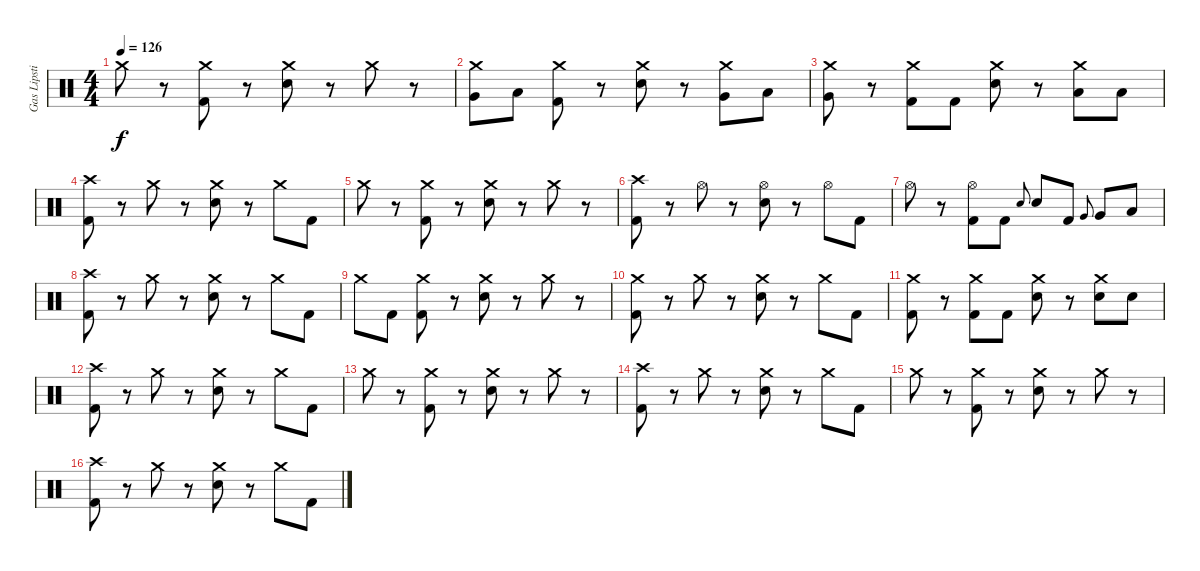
\track ("Gas Lipstick (Drums)" "Gas Lipsti") {instrument percussion}
\staff {score}
\articulation defaults
\ts (4 4)
\tempo 126
\clef neutral
\ks c "Crash medium (hit)".8{dy f}
r.8 ("Crash medium (hit)" "Kick (hit) 2").8 r.8 ("Crash medium (hit)" "Snare (hit) 2").8 r.8 "Crash medium (hit)".8 r.8 |
("Crash medium (hit)" "Very Low Tom (hit)").8 "Low Floor Tom (hit)".8 ("Crash medium (hit)" "Kick (hit) 2").8 r.8 ("Crash medium (hit)" "Snare (hit) 2").8 r.8 ("Crash medium (hit)" "Very Low Tom (hit)").8 "Low Floor Tom (hit)".8 |
("Crash medium (hit)" "Very Low Tom (hit)").8 r.8 ("Crash medium (hit)" "Kick (hit) 2").8 "Kick (hit) 2".8 ("Crash medium (hit)" "Snare (hit) 2").8 r.8 ("Crash medium (hit)" "Low Floor Tom (hit)").8 "Low Floor Tom (hit)".8 |
("Crash high (hit)" "Kick (hit) 2").8 r.8 "Crash medium (hit)".8 r.8 ("Crash medium (hit)" "Snare (hit) 2").8 r.8 "Crash medium (hit)".8 "Kick (hit) 2".8 |
"Crash medium (hit)".8 r.8 ("Crash medium (hit)" "Kick (hit) 2").8 r.8 ("Crash medium (hit)" "Snare (hit) 2").8 r.8 "Crash medium (hit)".8 r.8 |
("Crash high (hit)" "Kick (hit) 2").8 r.8 "Hi-Hat (open)".8 r.8 ("Hi-Hat (open)" "Snare (hit) 2").8 r.8 "Hi-Hat (open)".8 "Kick (hit) 2".8 |
"Hi-Hat (open)".8 r.8 ("Hi-Hat (open)" "Kick (hit) 2").8 "Kick (hit) 2".8 "Snare (hit) 2".8{gr onbeat} "Snare (hit) 2".8 "Kick (hit) 2".8 "Very Low Tom (hit)".8{gr onbeat} "Very Low Tom (hit)".8 "Low Floor Tom (hit)".8 |
("Crash high (hit)" "Kick (hit) 2").8 r.8 "Crash medium (hit)".8 r.8 ("Crash medium (hit)" "Snare (hit) 2").8 r.8 "Crash medium (hit)".8 "Kick (hit) 2".8 |
"Crash medium (hit)".8 "Kick (hit) 2".8 ("Crash medium (hit)" "Kick (hit) 2").8 r.8 ("Crash medium (hit)" "Snare (hit) 2").8 r.8 "Crash medium (hit)".8 r.8 |
("Crash medium (hit)" "Kick (hit) 2").8 r.8 "Crash medium (hit)".8 r.8 ("Crash medium (hit)" "Snare (hit) 2").8 r.8 "Crash medium (hit)".8 "Kick (hit) 2".8 |
("Crash medium (hit)" "Kick (hit) 2").8 r.8 ("Crash medium (hit)" "Kick (hit) 2").8 "Kick (hit) 2".8 ("Crash medium (hit)" "Snare (hit) 2").8 r.8 ("Crash medium (hit)" "Snare (hit) 2").8 "Snare (hit) 2".8 |
("Crash high (hit)" "Kick (hit) 2").8 r.8 "Crash medium (hit)".8 r.8 ("Crash medium (hit)" "Snare (hit) 2").8 r.8 "Crash medium (hit)".8 "Kick (hit) 2".8 |
"Crash medium (hit)".8 r.8 ("Crash medium (hit)" "Kick (hit) 2").8 r.8 ("Crash medium (hit)" "Snare (hit) 2").8 r.8 "Crash medium (hit)".8 r.8 |
("Crash high (hit)" "Kick (hit) 2").8 r.8 "Crash medium (hit)".8 r.8 ("Crash medium (hit)" "Snare (hit) 2").8 r.8 "Crash medium (hit)".8 "Kick (hit) 2".8 |
"Crash medium (hit)".8 r.8 ("Crash medium (hit)" "Kick (hit) 2").8 r.8 ("Crash medium (hit)" "Snare (hit) 2").8 r.8 "Crash medium (hit)".8 r.8 |
("Crash high (hit)" "Kick (hit) 2").8 r.8 "Crash medium (hit)".8 r.8 ("Crash medium (hit)" "Snare (hit) 2").8 r.8 "Crash medium (hit)".8 "Kick (hit) 2".8
